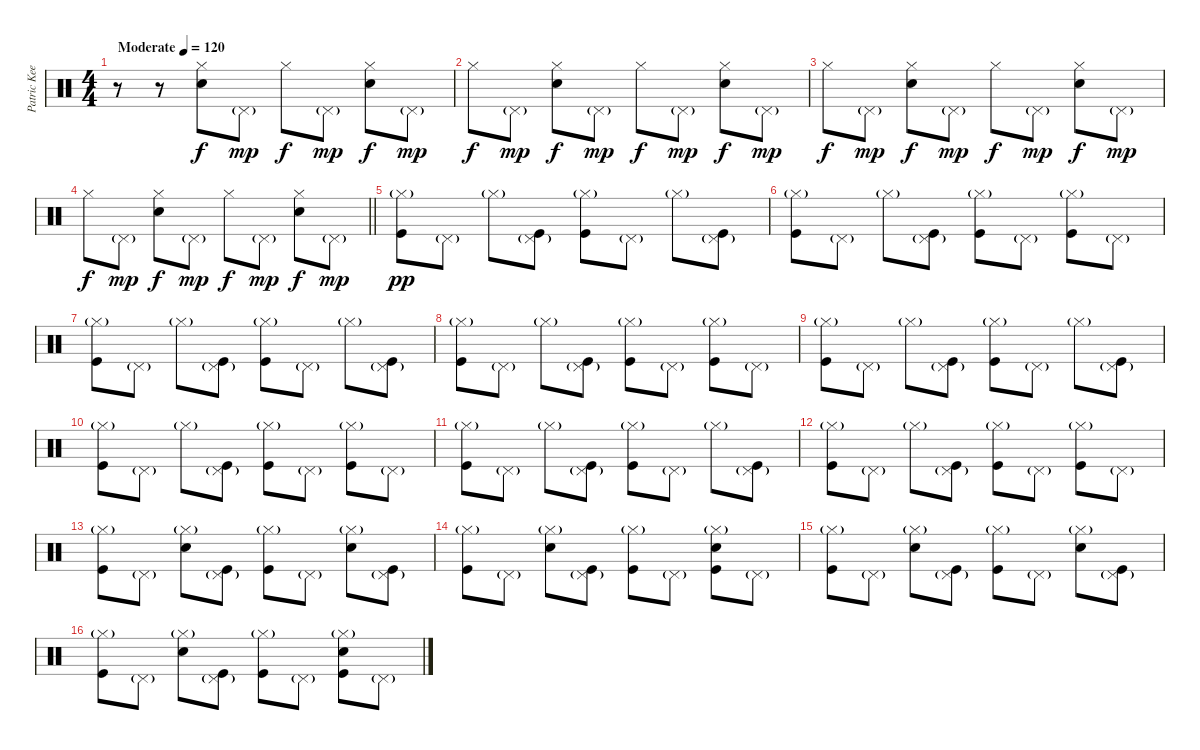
\track ("Patric Keeler (Drums)" "Patric Kee") {instrument percussion}
\staff {score}
\articulation defaults
\ts (4 4)
\tempo (120 "Moderate")
\clef neutral
\ks c
r.8{dy f} r.8 ("Hi-Hat (closed)" "Electric Snare (hit)").8 "Pedal Hi-Hat (hit)"{g}.8{dy mp} "Hi-Hat (closed)".8{dy f} "Pedal Hi-Hat (hit)"{g}.8{dy mp} ("Hi-Hat (closed)" "Electric Snare (hit)").8{dy f} "Pedal Hi-Hat (hit)"{g}.8{dy mp} |
"Hi-Hat (closed)".8{dy f} "Pedal Hi-Hat (hit)"{g}.8{dy mp} ("Hi-Hat (closed)" "Electric Snare (hit)").8{dy f} "Pedal Hi-Hat (hit)"{g}.8{dy mp} "Hi-Hat (closed)".8{dy f} "Pedal Hi-Hat (hit)"{g}.8{dy mp} ("Hi-Hat (closed)" "Electric Snare (hit)").8{dy f} "Pedal Hi-Hat (hit)"{g}.8{dy mp} |
"Hi-Hat (closed)".8{dy f} "Pedal Hi-Hat (hit)"{g}.8{dy mp} ("Hi-Hat (closed)" "Electric Snare (hit)").8{dy f} "Pedal Hi-Hat (hit)"{g}.8{dy mp} "Hi-Hat (closed)".8{dy f} "Pedal Hi-Hat (hit)"{g}.8{dy mp} ("Hi-Hat (closed)" "Electric Snare (hit)").8{dy f} "Pedal Hi-Hat (hit)"{g}.8{dy mp} |
\barLineRight lightlight "Hi-Hat (closed)".8{dy f} "Pedal Hi-Hat (hit)"{g}.8{dy mp}
("Hi-Hat (closed)" "Electric Snare (hit)").8{dy f} "Pedal Hi-Hat (hit)"{g}.8{dy mp} "Hi-Hat (closed)".8{dy f} "Pedal Hi-Hat (hit)"{g}.8{dy mp} ("Hi-Hat (closed)" "Electric Snare (hit)").8{dy f} "Pedal Hi-Hat (hit)"{g}.8{dy mp} |
("Hi-Hat (closed)"{g} "Kick (hit)").8{dy pp} "Pedal Hi-Hat (hit)"{g}.8 "Hi-Hat (closed)"{g}.8 ("Pedal Hi-Hat (hit)"{g} "Kick (hit)").8 ("Hi-Hat (closed)"{g} "Kick (hit)").8 "Pedal Hi-Hat (hit)"{g}.8 "Hi-Hat (closed)"{g}.8 ("Pedal Hi-Hat (hit)"{g} "Kick (hit)").8 |
("Hi-Hat (closed)"{g} "Kick (hit)").8 "Pedal Hi-Hat (hit)"{g}.8 "Hi-Hat (closed)"{g}.8 ("Pedal Hi-Hat (hit)"{g} "Kick (hit)").8 ("Hi-Hat (closed)"{g} "Kick (hit)").8 "Pedal Hi-Hat (hit)"{g}.8 ("Hi-Hat (closed)"{g} "Kick (hit)").8 "Pedal Hi-Hat (hit)"{g}.8 |
("Hi-Hat (closed)"{g} "Kick (hit)").8 "Pedal Hi-Hat (hit)"{g}.8 "Hi-Hat (closed)"{g}.8 ("Pedal Hi-Hat (hit)"{g} "Kick (hit)").8 ("Hi-Hat (closed)"{g} "Kick (hit)").8 "Pedal Hi-Hat (hit)"{g}.8 "Hi-Hat (closed)"{g}.8 ("Pedal Hi-Hat (hit)"{g} "Kick (hit)").8 |
("Hi-Hat (closed)"{g} "Kick (hit)").8 "Pedal Hi-Hat (hit)"{g}.8 "Hi-Hat (closed)"{g}.8 ("Pedal Hi-Hat (hit)"{g} "Kick (hit)").8 ("Hi-Hat (closed)"{g} "Kick (hit)").8 "Pedal Hi-Hat (hit)"{g}.8 ("Hi-Hat (closed)"{g} "Kick (hit)").8 "Pedal Hi-Hat (hit)"{g}.8 |
("Hi-Hat (closed)"{g} "Kick (hit)").8 "Pedal Hi-Hat (hit)"{g}.8 "Hi-Hat (closed)"{g}.8 ("Pedal Hi-Hat (hit)"{g} "Kick (hit)").8 ("Hi-Hat (closed)"{g} "Kick (hit)").8 "Pedal Hi-Hat (hit)"{g}.8 "Hi-Hat (closed)"{g}.8 ("Pedal Hi-Hat (hit)"{g} "Kick (hit)").8 |
("Hi-Hat (closed)"{g} "Kick (hit)").8 "Pedal Hi-Hat (hit)"{g}.8 "Hi-Hat (closed)"{g}.8 ("Pedal Hi-Hat (hit)"{g} "Kick (hit)").8 ("Hi-Hat (closed)"{g} "Kick (hit)").8 "Pedal Hi-Hat (hit)"{g}.8 ("Hi-Hat (closed)"{g} "Kick (hit)").8 "Pedal Hi-Hat (hit)"{g}.8 |
("Hi-Hat (closed)"{g} "Kick (hit)").8 "Pedal Hi-Hat (hit)"{g}.8 "Hi-Hat (closed)"{g}.8 ("Pedal Hi-Hat (hit)"{g} "Kick (hit)").8 ("Hi-Hat (closed)"{g} "Kick (hit)").8 "Pedal Hi-Hat (hit)"{g}.8 "Hi-Hat (closed)"{g}.8 ("Pedal Hi-Hat (hit)"{g} "Kick (hit)").8 |
("Hi-Hat (closed)"{g} "Kick (hit)").8 "Pedal Hi-Hat (hit)"{g}.8 "Hi-Hat (closed)"{g}.8 ("Pedal Hi-Hat (hit)"{g} "Kick (hit)").8 ("Hi-Hat (closed)"{g} "Kick (hit)").8 "Pedal Hi-Hat (hit)"{g}.8 ("Hi-Hat (closed)"{g} "Kick (hit)").8 "Pedal Hi-Hat (hit)"{g}.8 |
("Hi-Hat (closed)"{g} "Kick (hit)").8 "Pedal Hi-Hat (hit)"{g}.8 ("Hi-Hat (closed)"{g} "Snare (hit) 2").8 ("Pedal Hi-Hat (hit)"{g} "Kick (hit)").8 ("Hi-Hat (closed)"{g} "Kick (hit)").8 "Pedal Hi-Hat (hit)"{g}.8 ("Hi-Hat (closed)"{g} "Snare (hit) 2").8 ("Pedal Hi-Hat (hit)"{g} "Kick (hit)").8 |
("Hi-Hat (closed)"{g} "Kick (hit)").8 "Pedal Hi-Hat (hit)"{g}.8 ("Hi-Hat (closed)"{g} "Snare (hit) 2").8 ("Pedal Hi-Hat (hit)"{g} "Kick (hit)").8 ("Hi-Hat (closed)"{g} "Kick (hit)").8 "Pedal Hi-Hat (hit)"{g}.8 ("Hi-Hat (closed)"{g} "Snare (hit) 2" "Kick (hit)").8 "Pedal Hi-Hat (hit)"{g}.8 |
("Hi-Hat (closed)"{g} "Kick (hit)").8 "Pedal Hi-Hat (hit)"{g}.8 ("Hi-Hat (closed)"{g} "Snare (hit) 2").8 ("Pedal Hi-Hat (hit)"{g} "Kick (hit)").8 ("Hi-Hat (closed)"{g} "Kick (hit)").8 "Pedal Hi-Hat (hit)"{g}.8 ("Hi-Hat (closed)"{g} "Snare (hit) 2").8 ("Pedal Hi-Hat (hit)"{g} "Kick (hit)").8 |
("Hi-Hat (closed)"{g} "Kick (hit)").8 "Pedal Hi-Hat (hit)"{g}.8 ("Hi-Hat (closed)"{g} "Snare (hit) 2").8 ("Pedal Hi-Hat (hit)"{g} "Kick (hit)").8 ("Hi-Hat (closed)"{g} "Kick (hit)").8 "Pedal Hi-Hat (hit)"{g}.8 ("Hi-Hat (closed)"{g} "Snare (hit) 2" "Kick (hit)").8 "Pedal Hi-Hat (hit)"{g}.8
